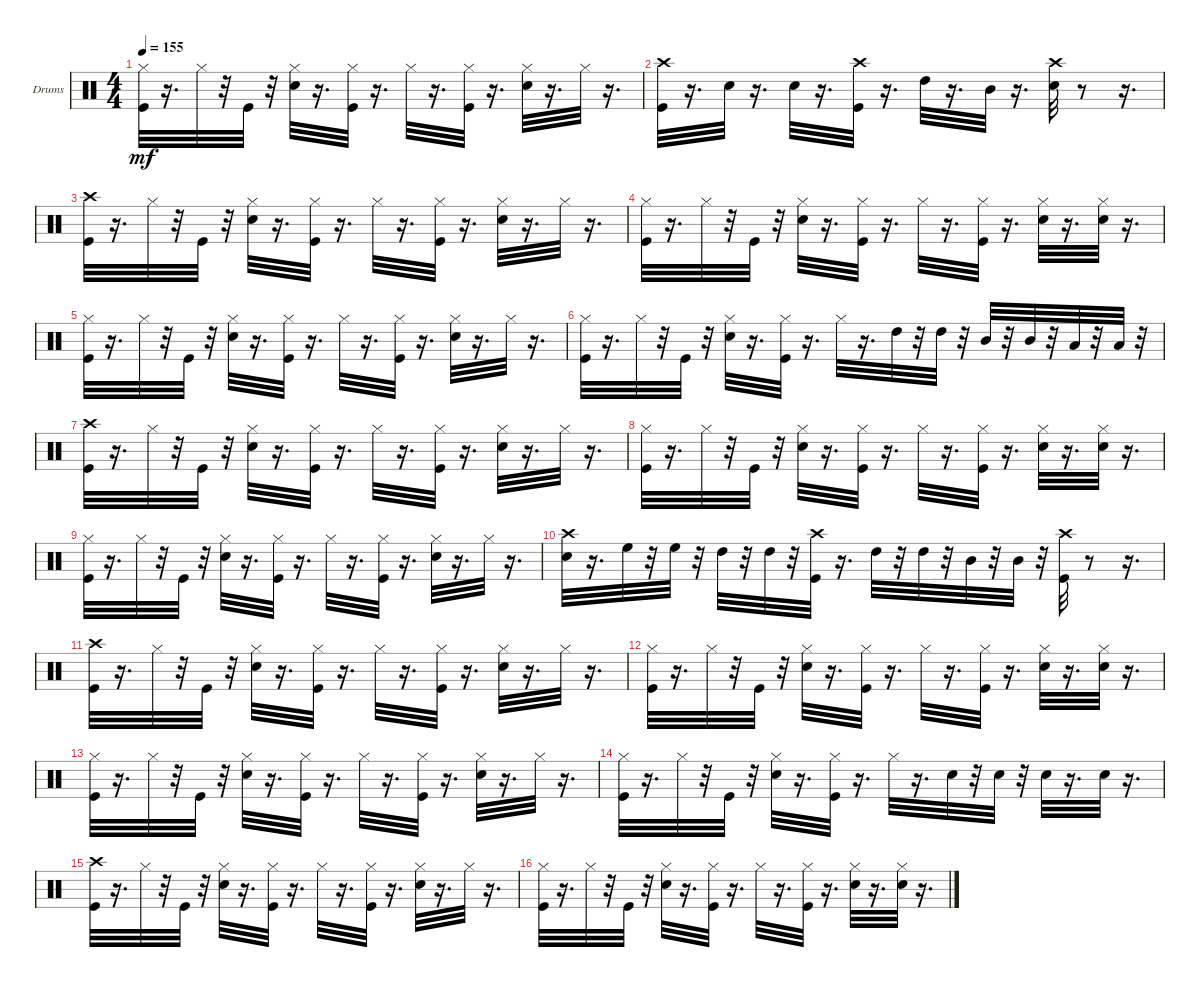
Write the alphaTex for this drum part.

\bracketExtendMode groupsimilarinstruments
\firstSystemTrackNameOrientation horizontal
\otherSystemsTrackNameOrientation horizontal
\track ("" "Drums") {instrument percussion}
\staff {score}
\articulation defaults
\ts (4 4)
\tempo 155
\clef neutral
\ks c
("Hi-Hat (closed)" "Kick (hit)").32{dy mf} r.16{d} "Hi-Hat (closed)".32 r.32 "Kick (hit)".32 r.32 ("Hi-Hat (closed)" "Snare (hit) 2").32 r.16{d} ("Kick (hit)" "Hi-Hat (closed)").32 r.16{d} "Hi-Hat (closed)".32 r.16{d} ("Kick (hit)" "Hi-Hat (closed)").32 r.16{d} ("Hi-Hat (closed)" "Snare (hit) 2").32 r.16{d} "Hi-Hat (closed)".32 r.16{d} |
("Crash high (hit)" "Kick (hit)").32 r.16{d} "Snare (hit) 2".32 r.16{d} "Snare (hit) 2".32 r.16{d} ("Crash high (hit)" "Kick (hit)").32 r.16{d} "High Tom (hit)".32 r.16{d} "Mid Tom (hit)".32 r.16{d} ("Crash high (hit)" "Snare (hit) 2").32 r.8 r.16{d} |
("Crash high (hit)" "Kick (hit)").32 r.16{d} "Hi-Hat (closed)".32 r.32 "Kick (hit)".32 r.32 ("Hi-Hat (closed)" "Snare (hit) 2").32 r.16{d} ("Kick (hit)" "Hi-Hat (closed)").32 r.16{d} "Hi-Hat (closed)".32 r.16{d} ("Kick (hit)" "Hi-Hat (closed)").32 r.16{d} ("Hi-Hat (closed)" "Snare (hit) 2").32 r.16{d} "Hi-Hat (closed)".32 r.16{d} |
("Hi-Hat (closed)" "Kick (hit)").32 r.16{d} "Hi-Hat (closed)".32 r.32 "Kick (hit)".32 r.32 ("Hi-Hat (closed)" "Snare (hit) 2").32 r.16{d} ("Kick (hit)" "Hi-Hat (closed)").32 r.16{d} "Hi-Hat (closed)".32 r.16{d} ("Kick (hit)" "Hi-Hat (closed)").32 r.16{d} ("Hi-Hat (closed)" "Snare (hit) 2").32 r.16{d} ("Snare (hit) 2" "Hi-Hat (closed)").32 r.16{d} |
("Hi-Hat (closed)" "Kick (hit)").32 r.16{d} "Hi-Hat (closed)".32 r.32 "Kick (hit)".32 r.32 ("Hi-Hat (closed)" "Snare (hit) 2").32 r.16{d} ("Kick (hit)" "Hi-Hat (closed)").32 r.16{d} "Hi-Hat (closed)".32 r.16{d} ("Kick (hit)" "Hi-Hat (closed)").32 r.16{d} ("Hi-Hat (closed)" "Snare (hit) 2").32 r.16{d} "Hi-Hat (closed)".32 r.16{d} |
("Hi-Hat (closed)" "Kick (hit)").32 r.16{d} "Hi-Hat (closed)".32 r.32 "Kick (hit)".32 r.32 ("Hi-Hat (closed)" "Snare (hit) 2").32 r.16{d} ("Kick (hit)" "Hi-Hat (closed)").32 r.16{d} "Hi-Hat (closed)".32 r.16{d} "High Tom (hit)".32 r.32 "High Tom (hit)".32 r.32 "Mid Tom (hit)".32 r.32 "Mid Tom (hit)".32 r.32 "Low Tom (hit)".32 r.32 "Low Tom (hit)".32 r.32 |
("Crash high (hit)" "Kick (hit)").32 r.16{d} "Hi-Hat (closed)".32 r.32 "Kick (hit)".32 r.32 ("Hi-Hat (closed)" "Snare (hit) 2").32 r.16{d} ("Kick (hit)" "Hi-Hat (closed)").32 r.16{d} "Hi-Hat (closed)".32 r.16{d} ("Kick (hit)" "Hi-Hat (closed)").32 r.16{d} ("Hi-Hat (closed)" "Snare (hit) 2").32 r.16{d} "Hi-Hat (closed)".32 r.16{d} |
("Hi-Hat (closed)" "Kick (hit)").32 r.16{d} "Hi-Hat (closed)".32 r.32 "Kick (hit)".32 r.32 ("Hi-Hat (closed)" "Snare (hit) 2").32 r.16{d} ("Kick (hit)" "Hi-Hat (closed)").32 r.16{d} "Hi-Hat (closed)".32 r.16{d} ("Kick (hit)" "Hi-Hat (closed)").32 r.16{d} ("Hi-Hat (closed)" "Snare (hit) 2").32 r.16{d} ("Snare (hit) 2" "Hi-Hat (closed)").32 r.16{d} |
("Hi-Hat (closed)" "Kick (hit)").32 r.16{d} "Hi-Hat (closed)".32 r.32 "Kick (hit)".32 r.32 ("Hi-Hat (closed)" "Snare (hit) 2").32 r.16{d} ("Kick (hit)" "Hi-Hat (closed)").32 r.16{d} "Hi-Hat (closed)".32 r.16{d} ("Kick (hit)" "Hi-Hat (closed)").32 r.16{d} ("Hi-Hat (closed)" "Snare (hit) 2").32 r.16{d} "Hi-Hat (closed)".32 r.16{d} |
("Crash high (hit)" "Snare (hit) 2").32 r.16{d} "High Floor Tom (hit)".32 r.32 "High Floor Tom (hit)".32 r.32 "High Tom (hit)".32 r.32 "High Tom (hit)".32 r.32 ("Crash high (hit)" "Kick (hit)").32 r.16{d} "High Tom (hit)".32 r.32 "High Tom (hit)".32 r.32 "Mid Tom (hit)".32 r.32 "Mid Tom (hit)".32 r.32 ("Crash high (hit)" "Kick (hit)").32 r.8 r.16{d} |
("Crash high (hit)" "Kick (hit)").32 r.16{d} "Hi-Hat (closed)".32 r.32 "Kick (hit)".32 r.32 ("Hi-Hat (closed)" "Snare (hit) 2").32 r.16{d} ("Kick (hit)" "Hi-Hat (closed)").32 r.16{d} "Hi-Hat (closed)".32 r.16{d} ("Kick (hit)" "Hi-Hat (closed)").32 r.16{d} ("Hi-Hat (closed)" "Snare (hit) 2").32 r.16{d} "Hi-Hat (closed)".32 r.16{d} |
("Hi-Hat (closed)" "Kick (hit)").32 r.16{d} "Hi-Hat (closed)".32 r.32 "Kick (hit)".32 r.32 ("Hi-Hat (closed)" "Snare (hit) 2").32 r.16{d} ("Kick (hit)" "Hi-Hat (closed)").32 r.16{d} "Hi-Hat (closed)".32 r.16{d} ("Kick (hit)" "Hi-Hat (closed)").32 r.16{d} ("Hi-Hat (closed)" "Snare (hit) 2").32 r.16{d} ("Snare (hit) 2" "Hi-Hat (closed)").32 r.16{d} |
("Hi-Hat (closed)" "Kick (hit)").32 r.16{d} "Hi-Hat (closed)".32 r.32 "Kick (hit)".32 r.32 ("Hi-Hat (closed)" "Snare (hit) 2").32 r.16{d} ("Kick (hit)" "Hi-Hat (closed)").32 r.16{d} "Hi-Hat (closed)".32 r.16{d} ("Kick (hit)" "Hi-Hat (closed)").32 r.16{d} ("Hi-Hat (closed)" "Snare (hit) 2").32 r.16{d} "Hi-Hat (closed)".32 r.16{d} |
("Hi-Hat (closed)" "Kick (hit)").32 r.16{d} "Hi-Hat (closed)".32 r.32 "Kick (hit)".32 r.32 ("Hi-Hat (closed)" "Snare (hit) 2").32 r.16{d} ("Kick (hit)" "Hi-Hat (closed)").32 r.16{d} "Hi-Hat (closed)".32 r.16{d} "Snare (hit) 2".32 r.32 "Snare (hit) 2".32 r.32 "Snare (hit) 2".32 r.16{d} "Snare (hit) 2".32 r.16{d} |
("Crash high (hit)" "Kick (hit)").32 r.16{d} "Hi-Hat (closed)".32 r.32 "Kick (hit)".32 r.32 ("Hi-Hat (closed)" "Snare (hit) 2").32 r.16{d} ("Kick (hit)" "Hi-Hat (closed)").32 r.16{d} "Hi-Hat (closed)".32 r.16{d} ("Kick (hit)" "Hi-Hat (closed)").32 r.16{d} ("Hi-Hat (closed)" "Snare (hit) 2").32 r.16{d} "Hi-Hat (closed)".32 r.16{d} |
("Hi-Hat (closed)" "Kick (hit)").32 r.16{d} "Hi-Hat (closed)".32 r.32 "Kick (hit)".32 r.32 ("Hi-Hat (closed)" "Snare (hit) 2").32 r.16{d} ("Kick (hit)" "Hi-Hat (closed)").32 r.16{d} "Hi-Hat (closed)".32 r.16{d} ("Kick (hit)" "Hi-Hat (closed)").32 r.16{d} ("Hi-Hat (closed)" "Snare (hit) 2").32 r.16{d} ("Snare (hit) 2" "Hi-Hat (closed)").32 r.16{d}
